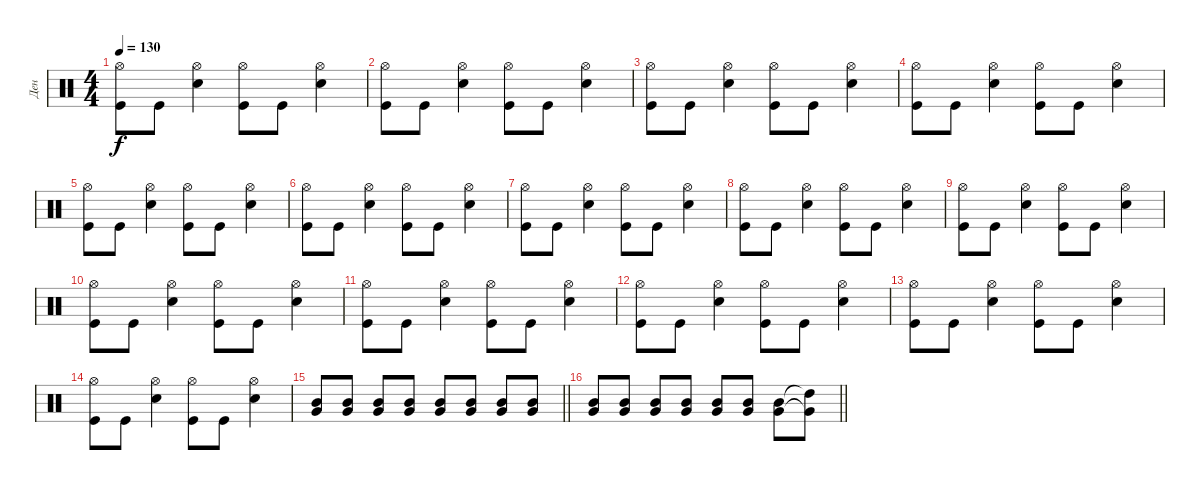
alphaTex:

\track ("Ден" "Ден") {instrument percussion}
\staff {score}
\articulation defaults
\ts (4 4)
\tempo 130
\clef neutral
\ks c
("Kick (hit)" "Hi-Hat (open)").8{dy f} "Kick (hit)".8 ("Snare (hit) 2" "Hi-Hat (open)").4 ("Kick (hit)" "Hi-Hat (open)").8 "Kick (hit)".8 ("Snare (hit) 2" "Hi-Hat (open)").4 |
("Kick (hit)" "Hi-Hat (open)").8 "Kick (hit)".8 ("Snare (hit) 2" "Hi-Hat (open)").4 ("Kick (hit)" "Hi-Hat (open)").8 "Kick (hit)".8 ("Snare (hit) 2" "Hi-Hat (open)").4 |
("Kick (hit)" "Hi-Hat (open)").8 "Kick (hit)".8 ("Snare (hit) 2" "Hi-Hat (open)").4 ("Kick (hit)" "Hi-Hat (open)").8 "Kick (hit)".8 ("Snare (hit) 2" "Hi-Hat (open)").4 |
("Kick (hit)" "Hi-Hat (open)").8 "Kick (hit)".8 ("Snare (hit) 2" "Hi-Hat (open)").4 ("Kick (hit)" "Hi-Hat (open)").8 "Kick (hit)".8 ("Snare (hit) 2" "Hi-Hat (open)").4 |
("Kick (hit)" "Hi-Hat (open)").8 "Kick (hit)".8 ("Snare (hit) 2" "Hi-Hat (open)").4 ("Kick (hit)" "Hi-Hat (open)").8 "Kick (hit)".8 ("Snare (hit) 2" "Hi-Hat (open)").4 |
("Kick (hit)" "Hi-Hat (open)").8 "Kick (hit)".8 ("Snare (hit) 2" "Hi-Hat (open)").4 ("Kick (hit)" "Hi-Hat (open)").8 "Kick (hit)".8 ("Snare (hit) 2" "Hi-Hat (open)").4 |
("Kick (hit)" "Hi-Hat (open)").8 "Kick (hit)".8 ("Snare (hit) 2" "Hi-Hat (open)").4 ("Kick (hit)" "Hi-Hat (open)").8 "Kick (hit)".8 ("Snare (hit) 2" "Hi-Hat (open)").4 |
("Kick (hit)" "Hi-Hat (open)").8 "Kick (hit)".8 ("Snare (hit) 2" "Hi-Hat (open)").4 ("Kick (hit)" "Hi-Hat (open)").8 "Kick (hit)".8 ("Snare (hit) 2" "Hi-Hat (open)").4 |
("Kick (hit)" "Hi-Hat (open)").8 "Kick (hit)".8 ("Snare (hit) 2" "Hi-Hat (open)").4 ("Kick (hit)" "Hi-Hat (open)").8 "Kick (hit)".8 ("Snare (hit) 2" "Hi-Hat (open)").4 |
("Kick (hit)" "Hi-Hat (open)").8 "Kick (hit)".8 ("Snare (hit) 2" "Hi-Hat (open)").4 ("Kick (hit)" "Hi-Hat (open)").8 "Kick (hit)".8 ("Snare (hit) 2" "Hi-Hat (open)").4 |
("Kick (hit)" "Hi-Hat (open)").8 "Kick (hit)".8 ("Snare (hit) 2" "Hi-Hat (open)").4 ("Kick (hit)" "Hi-Hat (open)").8 "Kick (hit)".8 ("Snare (hit) 2" "Hi-Hat (open)").4 |
("Kick (hit)" "Hi-Hat (open)").8 "Kick (hit)".8 ("Snare (hit) 2" "Hi-Hat (open)").4 ("Kick (hit)" "Hi-Hat (open)").8 "Kick (hit)".8 ("Snare (hit) 2" "Hi-Hat (open)").4 |
("Kick (hit)" "Hi-Hat (open)").8 "Kick (hit)".8 ("Snare (hit) 2" "Hi-Hat (open)").4 ("Kick (hit)" "Hi-Hat (open)").8 "Kick (hit)".8 ("Snare (hit) 2" "Hi-Hat (open)").4 |
("Kick (hit)" "Hi-Hat (open)").8 "Kick (hit)".8 ("Snare (hit) 2" "Hi-Hat (open)").4 ("Kick (hit)" "Hi-Hat (open)").8 "Kick (hit)".8 ("Snare (hit) 2" "Hi-Hat (open)").4 |
\barLineRight lightlight
("Mid Tom (hit)" "Very Low Tom (hit)").8 ("Mid Tom (hit)" "Very Low Tom (hit)").8 ("Mid Tom (hit)" "Very Low Tom (hit)").8 ("Mid Tom (hit)" "Very Low Tom (hit)").8 ("Mid Tom (hit)" "Very Low Tom (hit)").8 ("Mid Tom (hit)" "Very Low Tom (hit)").8 ("Mid Tom (hit)" "Very Low Tom (hit)").8 ("Mid Tom (hit)" "Very Low Tom (hit)").8 |
\barLineRight lightlight
("Mid Tom (hit)" "Very Low Tom (hit)").8 ("Mid Tom (hit)" "Very Low Tom (hit)").8 ("Mid Tom (hit)" "Very Low Tom (hit)").8 ("Mid Tom (hit)" "Very Low Tom (hit)").8 ("Mid Tom (hit)" "Very Low Tom (hit)").8 ("Mid Tom (hit)" "Very Low Tom (hit)").8 ("Mid Tom (hit)" "Very Low Tom (hit)").8 ("High Tom (hit)"{t} "Very Low Tom (hit)"{t}).8
